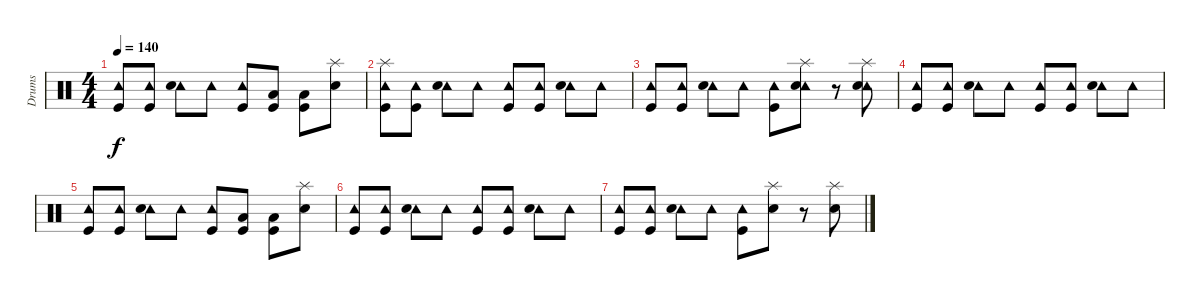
\track ("Drums" "Drums") {instrument percussion}
\staff {score}
\articulation defaults
\ts (4 4)
\tempo 140
\clef neutral
\ks c
("Tambourine (hit)" "Kick (hit)").8{dy f} ("Tambourine (hit)" "Kick (hit)").8 ("Tambourine (hit)" "Snare (hit) 2").8 "Tambourine (hit)".8 ("Tambourine (hit)" "Kick (hit)").8 ("Kick (hit)" "Low Tom (hit)").8 ("Kick (hit)" "Low Tom (hit)").8 ("Snare (hit) 2" "Splash (hit)").8 |
("Tambourine (hit)" "Kick (hit)" "Splash (hit)").8 ("Tambourine (hit)" "Kick (hit)").8 ("Tambourine (hit)" "Snare (hit) 2").8 "Tambourine (hit)".8 ("Tambourine (hit)" "Kick (hit)").8 ("Tambourine (hit)" "Kick (hit)").8 ("Tambourine (hit)" "Snare (hit) 2").8 "Tambourine (hit)".8 |
("Tambourine (hit)" "Kick (hit)").8 ("Tambourine (hit)" "Kick (hit)").8 ("Tambourine (hit)" "Snare (hit) 2").8 "Tambourine (hit)".8 ("Tambourine (hit)" "Kick (hit)").8 ("Tambourine (hit)" "Snare (hit) 2" "Splash (hit)").8 r.8 ("Tambourine (hit)" "Snare (hit) 2" "Splash (hit)").8 |
("Tambourine (hit)" "Kick (hit)").8 ("Tambourine (hit)" "Kick (hit)").8 ("Tambourine (hit)" "Snare (hit) 2").8 "Tambourine (hit)".8 ("Tambourine (hit)" "Kick (hit)").8 ("Tambourine (hit)" "Kick (hit)").8 ("Tambourine (hit)" "Snare (hit) 2").8 "Tambourine (hit)".8 |
("Tambourine (hit)" "Kick (hit)").8 ("Tambourine (hit)" "Kick (hit)").8 ("Tambourine (hit)" "Snare (hit) 2").8 "Tambourine (hit)".8 ("Tambourine (hit)" "Kick (hit)").8 ("Kick (hit)" "Low Tom (hit)").8 ("Kick (hit)" "Low Tom (hit)").8 ("Snare (hit) 2" "Splash (hit)").8 |
("Tambourine (hit)" "Kick (hit)").8 ("Tambourine (hit)" "Kick (hit)").8 ("Tambourine (hit)" "Snare (hit) 2").8 "Tambourine (hit)".8 ("Tambourine (hit)" "Kick (hit)").8 ("Tambourine (hit)" "Kick (hit)").8 ("Tambourine (hit)" "Snare (hit) 2").8 "Tambourine (hit)".8 |
("Tambourine (hit)" "Kick (hit)").8 ("Tambourine (hit)" "Kick (hit)").8 ("Tambourine (hit)" "Snare (hit) 2").8 "Tambourine (hit)".8 ("Tambourine (hit)" "Kick (hit)").8 ("Snare (hit) 2" "Splash (hit)").8 r.8 ("Snare (hit) 2" "Splash (hit)").8
